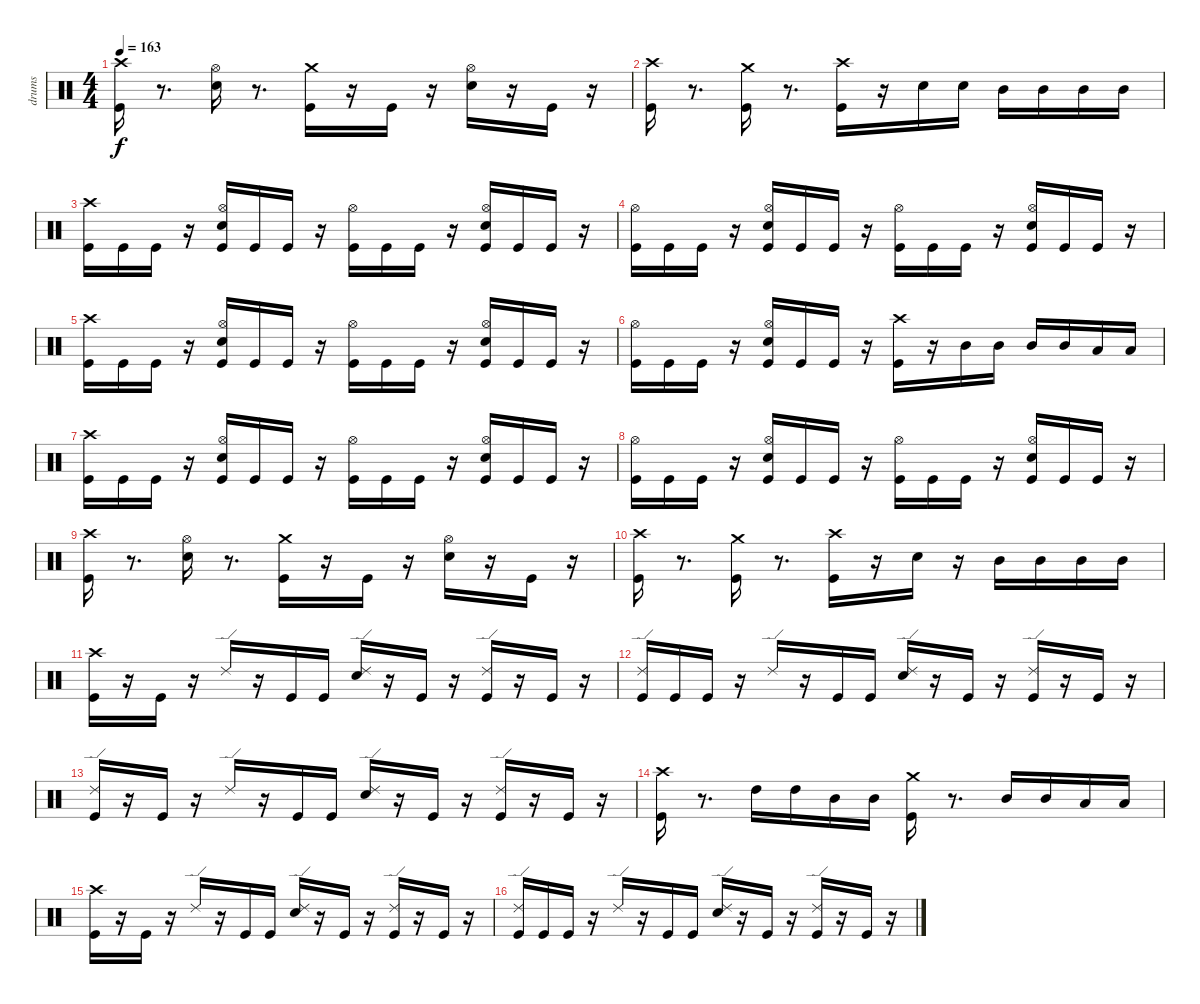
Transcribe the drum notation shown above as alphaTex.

\track ("drums" "drums") {instrument percussion}
\staff {score}
\articulation defaults
\ts (4 4)
\tempo 163
\clef neutral
\ks c
("Crash high (hit)" "Kick (hit)").16{dy f} r.8{d} ("Hi-Hat (open)" "Snare (hit) 2").16 r.8{d} ("Crash medium (hit)" "Kick (hit)").16 r.16 "Kick (hit)".16 r.16 ("Hi-Hat (open)" "Snare (hit) 2").16 r.16 "Kick (hit)".16 r.16 |
("Kick (hit)" "Crash high (hit)").16 r.8{d} ("Kick (hit)" "Crash medium (hit)").16 r.8{d} ("Kick (hit)" "Crash high (hit)").16 r.16 "Snare (hit) 2".16 "Snare (hit) 2".16 "Mid Tom (hit)".16 "Mid Tom (hit)".16 "Mid Tom (hit)".16 "Mid Tom (hit)".16 |
("Crash high (hit)" "Kick (hit)").16 "Kick (hit)".16 "Kick (hit)".16 r.16 ("Kick (hit)" "Hi-Hat (open)" "Snare (hit) 2").16 "Kick (hit)".16 "Kick (hit)".16 r.16 ("Hi-Hat (open)" "Kick (hit)").16 "Kick (hit)".16 "Kick (hit)".16 r.16 ("Kick (hit)" "Hi-Hat (open)" "Snare (hit) 2").16 "Kick (hit)".16 "Kick (hit)".16 r.16 |
("Hi-Hat (open)" "Kick (hit)").16 "Kick (hit)".16 "Kick (hit)".16 r.16 ("Kick (hit)" "Hi-Hat (open)" "Snare (hit) 2").16 "Kick (hit)".16 "Kick (hit)".16 r.16 ("Hi-Hat (open)" "Kick (hit)").16 "Kick (hit)".16 "Kick (hit)".16 r.16 ("Kick (hit)" "Hi-Hat (open)" "Snare (hit) 2").16 "Kick (hit)".16 "Kick (hit)".16 r.16 |
("Crash high (hit)" "Kick (hit)").16 "Kick (hit)".16 "Kick (hit)".16 r.16 ("Hi-Hat (open)" "Snare (hit) 2" "Kick (hit)").16 "Kick (hit)".16 "Kick (hit)".16 r.16 ("Hi-Hat (open)" "Kick (hit)").16 "Kick (hit)".16 "Kick (hit)".16 r.16 ("Hi-Hat (open)" "Snare (hit) 2" "Kick (hit)").16 "Kick (hit)".16 "Kick (hit)".16 r.16 |
("Hi-Hat (open)" "Kick (hit)").16 "Kick (hit)".16 "Kick (hit)".16 r.16 ("Hi-Hat (open)" "Snare (hit) 2" "Kick (hit)").16 "Kick (hit)".16 "Kick (hit)".16 r.16 ("Crash high (hit)" "Kick (hit)").16 r.16 "Mid Tom (hit)".16 "Mid Tom (hit)".16 "Mid Tom (hit)".16 "Mid Tom (hit)".16 "Low Tom (hit)".16 "Low Tom (hit)".16 |
("Crash high (hit)" "Kick (hit)").16 "Kick (hit)".16 "Kick (hit)".16 r.16 ("Kick (hit)" "Hi-Hat (open)" "Snare (hit) 2").16 "Kick (hit)".16 "Kick (hit)".16 r.16 ("Hi-Hat (open)" "Kick (hit)").16 "Kick (hit)".16 "Kick (hit)".16 r.16 ("Kick (hit)" "Hi-Hat (open)" "Snare (hit) 2").16 "Kick (hit)".16 "Kick (hit)".16 r.16 |
("Hi-Hat (open)" "Kick (hit)").16 "Kick (hit)".16 "Kick (hit)".16 r.16 ("Kick (hit)" "Hi-Hat (open)" "Snare (hit) 2").16 "Kick (hit)".16 "Kick (hit)".16 r.16 ("Hi-Hat (open)" "Kick (hit)").16 "Kick (hit)".16 "Kick (hit)".16 r.16 ("Kick (hit)" "Hi-Hat (open)" "Snare (hit) 2").16 "Kick (hit)".16 "Kick (hit)".16 r.16 |
("Crash high (hit)" "Kick (hit)").16 r.8{d} ("Hi-Hat (open)" "Snare (hit) 2").16 r.8{d} ("Crash medium (hit)" "Kick (hit)").16 r.16 "Kick (hit)".16 r.16 ("Hi-Hat (open)" "Snare (hit) 2").16 r.16 "Kick (hit)".16 r.16 |
("Kick (hit)" "Crash high (hit)").16 r.8{d} ("Kick (hit)" "Crash medium (hit)").16 r.8{d} ("Kick (hit)" "Crash high (hit)").16 r.16 "Snare (hit) 2".16 r.16 "Mid Tom (hit)".16 "Mid Tom (hit)".16 "Mid Tom (hit)".16 "Mid Tom (hit)".16 |
("Crash high (hit)" "Kick (hit)").16 r.16 "Kick (hit)".16 r.16 "Ride (edge) 2".16 r.16 "Kick (hit)".16 "Kick (hit)".16 ("Ride (edge) 2" "Snare (hit) 2").16 r.16 "Kick (hit)".16 r.16 ("Kick (hit)" "Ride (edge) 2").16 r.16 "Kick (hit)".16 r.16 |
("Ride (edge) 2" "Kick (hit)").16 "Kick (hit)".16 "Kick (hit)".16 r.16 "Ride (edge) 2".16 r.16 "Kick (hit)".16 "Kick (hit)".16 ("Ride (edge) 2" "Snare (hit) 2").16 r.16 "Kick (hit)".16 r.16 ("Kick (hit)" "Ride (edge) 2").16 r.16 "Kick (hit)".16 r.16 |
("Ride (edge) 2" "Kick (hit)").16 r.16 "Kick (hit)".16 r.16 "Ride (edge) 2".16 r.16 "Kick (hit)".16 "Kick (hit)".16 ("Ride (edge) 2" "Snare (hit) 2").16 r.16 "Kick (hit)".16 r.16 ("Ride (edge) 2" "Kick (hit)").16 r.16 "Kick (hit)".16 r.16 |
("Kick (hit)" "Crash high (hit)").16 r.8{d} "High Tom (hit)".16 "High Tom (hit)".16 "Mid Tom (hit)".16 "Mid Tom (hit)".16 ("Crash medium (hit)" "Kick (hit)").16 r.8{d} "Mid Tom (hit)".16 "Mid Tom (hit)".16 "Low Tom (hit)".16 "Low Tom (hit)".16 |
("Crash high (hit)" "Kick (hit)").16 r.16 "Kick (hit)".16 r.16 "Ride (edge) 2".16 r.16 "Kick (hit)".16 "Kick (hit)".16 ("Ride (edge) 2" "Snare (hit) 2").16 r.16 "Kick (hit)".16 r.16 ("Kick (hit)" "Ride (edge) 2").16 r.16 "Kick (hit)".16 r.16 |
("Ride (edge) 2" "Kick (hit)").16 "Kick (hit)".16 "Kick (hit)".16 r.16 "Ride (edge) 2".16 r.16 "Kick (hit)".16 "Kick (hit)".16 ("Ride (edge) 2" "Snare (hit) 2").16 r.16 "Kick (hit)".16 r.16 ("Kick (hit)" "Ride (edge) 2").16 r.16 "Kick (hit)".16 r.16
